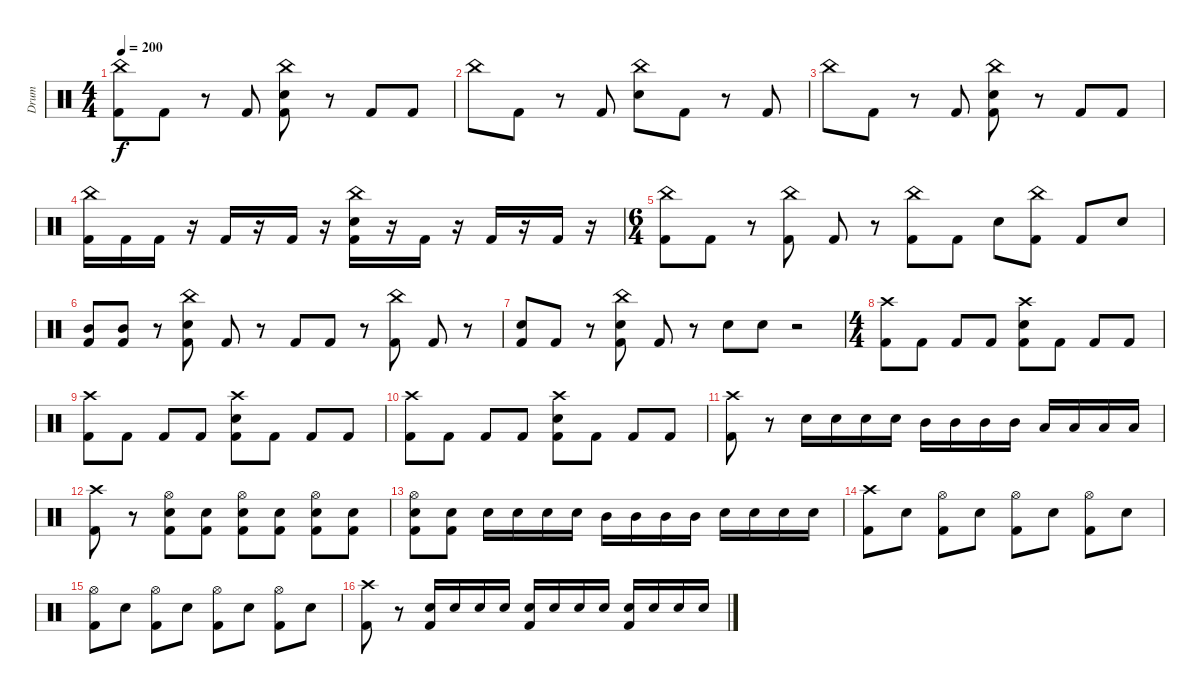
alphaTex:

\track ("Drum" "Drum") {instrument percussion}
\staff {score}
\articulation defaults
\ts (4 4)
\tempo 200
\clef neutral
\ks c
("China (hit)" "Kick (hit) 2").8{dy f} "Kick (hit) 2".8 r.8 "Kick (hit) 2".8 ("China (hit)" "Snare (hit) 2" "Kick (hit) 2").8 r.8 "Kick (hit) 2".8 "Kick (hit) 2".8 |
"China (hit)".8 "Kick (hit) 2".8 r.8 "Kick (hit) 2".8 ("China (hit)" "Snare (hit) 2").8 "Kick (hit) 2".8 r.8 "Kick (hit) 2".8 |
"China (hit)".8 "Kick (hit) 2".8 r.8 "Kick (hit) 2".8 ("China (hit)" "Snare (hit) 2" "Kick (hit) 2").8 r.8 "Kick (hit) 2".8 "Kick (hit) 2".8 |
("China (hit)" "Kick (hit) 2").16 "Kick (hit) 2".16 "Kick (hit) 2".16 r.16 "Kick (hit) 2".16 r.16 "Kick (hit) 2".16 r.16 ("China (hit)" "Snare (hit) 2" "Kick (hit) 2").16 r.16 "Kick (hit) 2".16 r.16 "Kick (hit) 2".16 r.16 "Kick (hit) 2".16 r.16 |
\ts (6 4)
("China (hit)" "Kick (hit) 2").8 "Kick (hit) 2".8 r.8 ("China (hit)" "Kick (hit) 2").8 "Kick (hit) 2".8 r.8 ("China (hit)" "Kick (hit) 2").8 "Kick (hit) 2".8 "Snare (hit) 2".8 ("China (hit)" "Kick (hit) 2").8 "Kick (hit) 2".8 "Snare (hit) 2".8 |
("Mid Tom (hit)" "Kick (hit) 2").8 ("Mid Tom (hit)" "Kick (hit) 2").8 r.8 ("China (hit)" "Snare (hit) 2" "Kick (hit) 2").8 "Kick (hit) 2".8 r.8 "Kick (hit) 2".8 "Kick (hit) 2".8 r.8 ("China (hit)" "Kick (hit) 2").8 "Kick (hit) 2".8 r.8 |
("Snare (hit) 2" "Kick (hit) 2").8 "Kick (hit) 2".8 r.8 ("China (hit)" "Snare (hit) 2" "Kick (hit) 2").8 "Kick (hit) 2".8 r.8 "Snare (hit) 2".8 "Snare (hit) 2".8 r.2 |
\ts (4 4)
("Crash high (hit)" "Kick (hit) 2").8 "Kick (hit) 2".8 "Kick (hit) 2".8 "Kick (hit) 2".8 ("Crash high (hit)" "Snare (hit) 2" "Kick (hit) 2").8 "Kick (hit) 2".8 "Kick (hit) 2".8 "Kick (hit) 2".8 |
("Crash high (hit)" "Kick (hit) 2").8 "Kick (hit) 2".8 "Kick (hit) 2".8 "Kick (hit) 2".8 ("Crash high (hit)" "Snare (hit) 2" "Kick (hit) 2").8 "Kick (hit) 2".8 "Kick (hit) 2".8 "Kick (hit) 2".8 |
("Crash high (hit)" "Kick (hit) 2").8 "Kick (hit) 2".8 "Kick (hit) 2".8 "Kick (hit) 2".8 ("Crash high (hit)" "Snare (hit) 2" "Kick (hit) 2").8 "Kick (hit) 2".8 "Kick (hit) 2".8 "Kick (hit) 2".8 |
("Crash high (hit)" "Kick (hit) 2").8 r.8 "Snare (hit) 2".16 "Snare (hit) 2".16 "Snare (hit) 2".16 "Snare (hit) 2".16 "Mid Tom (hit)".16 "Mid Tom (hit)".16 "Mid Tom (hit)".16 "Mid Tom (hit)".16 "Low Tom (hit)".16 "Low Tom (hit)".16 "Low Tom (hit)".16 "Low Tom (hit)".16 |
("Crash high (hit)" "Kick (hit) 2").8 r.8 ("Hi-Hat (open)" "Snare (hit) 2" "Kick (hit) 2").8 ("Snare (hit) 2" "Kick (hit) 2").8 ("Hi-Hat (open)" "Snare (hit) 2" "Kick (hit) 2").8 ("Snare (hit) 2" "Kick (hit) 2").8 ("Hi-Hat (open)" "Snare (hit) 2" "Kick (hit) 2").8 ("Snare (hit) 2" "Kick (hit) 2").8 |
("Hi-Hat (open)" "Snare (hit) 2" "Kick (hit) 2").8 ("Snare (hit) 2" "Kick (hit) 2").8 "Snare (hit) 2".16 "Snare (hit) 2".16 "Snare (hit) 2".16 "Snare (hit) 2".16 "Mid Tom (hit)".16 "Mid Tom (hit)".16 "Mid Tom (hit)".16 "Mid Tom (hit)".16 "Snare (hit) 2".16 "Snare (hit) 2".16 "Snare (hit) 2".16 "Snare (hit) 2".16 |
("Crash high (hit)" "Kick (hit) 2").8 "Snare (hit) 2".8 ("Hi-Hat (open)" "Kick (hit) 2").8 "Snare (hit) 2".8 ("Hi-Hat (open)" "Kick (hit) 2").8 "Snare (hit) 2".8 ("Hi-Hat (open)" "Kick (hit) 2").8 "Snare (hit) 2".8 |
("Hi-Hat (open)" "Kick (hit) 2").8 "Snare (hit) 2".8 ("Hi-Hat (open)" "Kick (hit) 2").8 "Snare (hit) 2".8 ("Hi-Hat (open)" "Kick (hit) 2").8 "Snare (hit) 2".8 ("Hi-Hat (open)" "Kick (hit) 2").8 "Snare (hit) 2".8 |
("Crash high (hit)" "Kick (hit) 2").8 r.8 ("Snare (hit) 2" "Kick (hit) 2").16 "Snare (hit) 2".16 "Snare (hit) 2".16 "Snare (hit) 2".16 ("Snare (hit) 2" "Kick (hit) 2").16 "Snare (hit) 2".16 "Snare (hit) 2".16 "Snare (hit) 2".16 ("Snare (hit) 2" "Kick (hit) 2").16 "Snare (hit) 2".16 "Snare (hit) 2".16 "Snare (hit) 2".16
